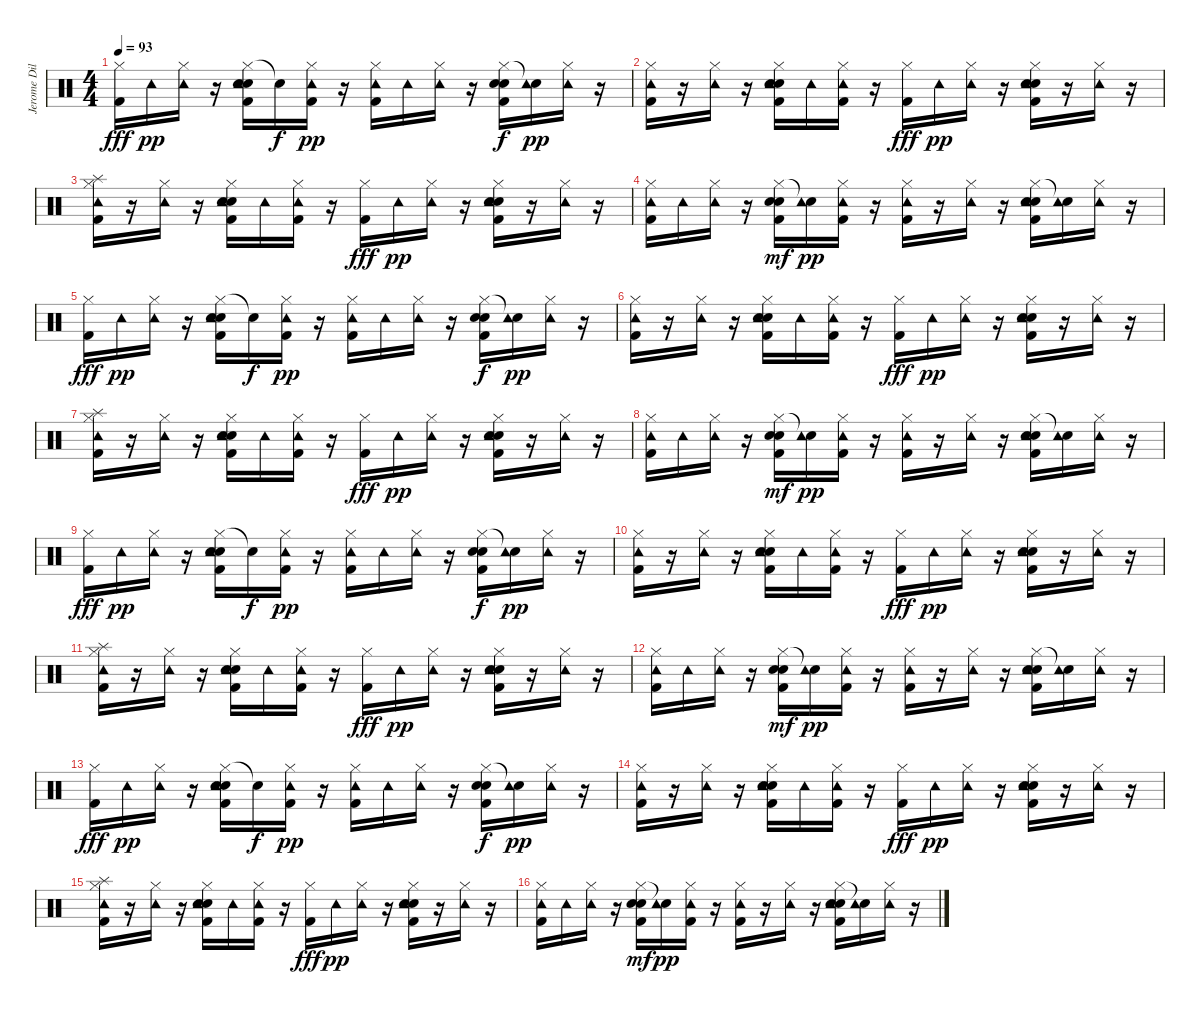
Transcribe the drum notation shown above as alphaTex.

\track ("Jerome Dillon" "Jerome Dil") {instrument percussion}
\staff {score}
\articulation defaults
\ts (4 4)
\tempo 93
\clef neutral
\ks c
("Hi-Hat (closed)" "Kick (hit) 2").16{dy fff} "Tambourine (hit)".16{dy pp} ("Hi-Hat (closed)" "Tambourine (hit)").16 r.16 ("Hi-Hat (closed)" "Hand Clap (hit)" "Snare (hit) 2" "Kick (hit) 2" "Tambourine (hit)").16 "Snare (hit)"{t}.16{dy f} ("Hi-Hat (closed)" "Kick (hit) 2" "Tambourine (hit)").16{dy pp} r.16 ("Hi-Hat (closed)" "Kick (hit) 2" "Tambourine (hit)").16 "Tambourine (hit)".16 ("Hi-Hat (closed)" "Tambourine (hit)").16 r.16 ("Hi-Hat (closed)" "Hand Clap (hit)" "Snare (hit) 2" "Kick (hit) 2").16{dy f} ("Snare (hit)"{t} "Tambourine (hit)").16{dy pp} ("Hi-Hat (closed)" "Tambourine (hit)").16 r.16 |
("Hi-Hat (closed)" "Kick (hit) 2" "Tambourine (hit)").16 r.16 ("Hi-Hat (closed)" "Tambourine (hit)").16 r.16 ("Hi-Hat (closed)" "Hand Clap (hit)" "Snare (hit) 2" "Kick (hit) 2" "Tambourine (hit)").16 "Tambourine (hit)".16 ("Hi-Hat (closed)" "Kick (hit) 2" "Tambourine (hit)").16 r.16 ("Hi-Hat (closed)" "Kick (hit) 2").16{dy fff} "Tambourine (hit)".16{dy pp} ("Hi-Hat (closed)" "Tambourine (hit)").16 r.16 ("Hi-Hat (closed)" "Hand Clap (hit)" "Snare (hit) 2" "Kick (hit) 2" "Tambourine (hit)").16 r.16 ("Hi-Hat (closed)" "Tambourine (hit)").16 r.16 |
("Hi-Hat (closed)" "Splash (hit)" "Kick (hit) 2" "Tambourine (hit)").16 r.16 ("Hi-Hat (closed)" "Tambourine (hit)").16 r.16 ("Hi-Hat (closed)" "Hand Clap (hit)" "Snare (hit) 2" "Kick (hit) 2" "Tambourine (hit)").16 "Tambourine (hit)".16 ("Hi-Hat (closed)" "Kick (hit) 2" "Tambourine (hit)").16 r.16 ("Hi-Hat (closed)" "Kick (hit) 2").16{dy fff} "Tambourine (hit)".16{dy pp} ("Hi-Hat (closed)" "Tambourine (hit)").16 r.16 ("Hi-Hat (closed)" "Hand Clap (hit)" "Snare (hit) 2" "Kick (hit) 2" "Tambourine (hit)").16 r.16 ("Hi-Hat (closed)" "Tambourine (hit)").16 r.16 |
("Hi-Hat (closed)" "Kick (hit) 2" "Tambourine (hit)").16 "Tambourine (hit)".16 ("Hi-Hat (closed)" "Tambourine (hit)").16 r.16 ("Hi-Hat (closed)" "Hand Clap (hit)" "Snare (hit) 2" "Kick (hit) 2").16{dy mf} ("Snare (hit)"{t} "Tambourine (hit)").16{dy pp} ("Hi-Hat (closed)" "Kick (hit) 2" "Tambourine (hit)").16 r.16 ("Hi-Hat (closed)" "Kick (hit) 2" "Tambourine (hit)").16 r.16 ("Hi-Hat (closed)" "Tambourine (hit)").16 r.16 ("Hi-Hat (closed)" "Hand Clap (hit)" "Snare (hit) 2" "Kick (hit) 2" "Tambourine (hit)").16 ("Snare (hit)"{t} "Tambourine (hit)").16 ("Hi-Hat (closed)" "Tambourine (hit)").16 r.16 |
("Hi-Hat (closed)" "Kick (hit) 2").16{dy fff} "Tambourine (hit)".16{dy pp} ("Hi-Hat (closed)" "Tambourine (hit)").16 r.16 ("Hi-Hat (closed)" "Hand Clap (hit)" "Snare (hit) 2" "Kick (hit) 2" "Tambourine (hit)").16 "Snare (hit)"{t}.16{dy f} ("Hi-Hat (closed)" "Kick (hit) 2" "Tambourine (hit)").16{dy pp} r.16 ("Hi-Hat (closed)" "Kick (hit) 2" "Tambourine (hit)").16 "Tambourine (hit)".16 ("Hi-Hat (closed)" "Tambourine (hit)").16 r.16 ("Hi-Hat (closed)" "Hand Clap (hit)" "Snare (hit) 2" "Kick (hit) 2").16{dy f} ("Snare (hit)"{t} "Tambourine (hit)").16{dy pp} ("Hi-Hat (closed)" "Tambourine (hit)").16 r.16 |
("Hi-Hat (closed)" "Kick (hit) 2" "Tambourine (hit)").16 r.16 ("Hi-Hat (closed)" "Tambourine (hit)").16 r.16 ("Hi-Hat (closed)" "Hand Clap (hit)" "Snare (hit) 2" "Kick (hit) 2" "Tambourine (hit)").16 "Tambourine (hit)".16 ("Hi-Hat (closed)" "Kick (hit) 2" "Tambourine (hit)").16 r.16 ("Hi-Hat (closed)" "Kick (hit) 2").16{dy fff} "Tambourine (hit)".16{dy pp} ("Hi-Hat (closed)" "Tambourine (hit)").16 r.16 ("Hi-Hat (closed)" "Hand Clap (hit)" "Snare (hit) 2" "Kick (hit) 2" "Tambourine (hit)").16 r.16 ("Hi-Hat (closed)" "Tambourine (hit)").16 r.16 |
("Hi-Hat (closed)" "Splash (hit)" "Kick (hit) 2" "Tambourine (hit)").16 r.16 ("Hi-Hat (closed)" "Tambourine (hit)").16 r.16 ("Hi-Hat (closed)" "Hand Clap (hit)" "Snare (hit) 2" "Kick (hit) 2" "Tambourine (hit)").16 "Tambourine (hit)".16 ("Hi-Hat (closed)" "Kick (hit) 2" "Tambourine (hit)").16 r.16 ("Hi-Hat (closed)" "Kick (hit) 2").16{dy fff} "Tambourine (hit)".16{dy pp} ("Hi-Hat (closed)" "Tambourine (hit)").16 r.16 ("Hi-Hat (closed)" "Hand Clap (hit)" "Snare (hit) 2" "Kick (hit) 2" "Tambourine (hit)").16 r.16 ("Hi-Hat (closed)" "Tambourine (hit)").16 r.16 |
("Hi-Hat (closed)" "Kick (hit) 2" "Tambourine (hit)").16 "Tambourine (hit)".16 ("Hi-Hat (closed)" "Tambourine (hit)").16 r.16 ("Hi-Hat (closed)" "Hand Clap (hit)" "Snare (hit) 2" "Kick (hit) 2").16{dy mf} ("Snare (hit)"{t} "Tambourine (hit)").16{dy pp} ("Hi-Hat (closed)" "Kick (hit) 2" "Tambourine (hit)").16 r.16 ("Hi-Hat (closed)" "Kick (hit) 2" "Tambourine (hit)").16 r.16 ("Hi-Hat (closed)" "Tambourine (hit)").16 r.16 ("Hi-Hat (closed)" "Hand Clap (hit)" "Snare (hit) 2" "Kick (hit) 2" "Tambourine (hit)").16 ("Snare (hit)"{t} "Tambourine (hit)").16 ("Hi-Hat (closed)" "Tambourine (hit)").16 r.16 |
("Hi-Hat (closed)" "Kick (hit) 2").16{dy fff} "Tambourine (hit)".16{dy pp} ("Hi-Hat (closed)" "Tambourine (hit)").16 r.16 ("Hi-Hat (closed)" "Hand Clap (hit)" "Snare (hit) 2" "Kick (hit) 2" "Tambourine (hit)").16 "Snare (hit)"{t}.16{dy f} ("Hi-Hat (closed)" "Kick (hit) 2" "Tambourine (hit)").16{dy pp} r.16 ("Hi-Hat (closed)" "Kick (hit) 2" "Tambourine (hit)").16 "Tambourine (hit)".16 ("Hi-Hat (closed)" "Tambourine (hit)").16 r.16 ("Hi-Hat (closed)" "Hand Clap (hit)" "Snare (hit) 2" "Kick (hit) 2").16{dy f} ("Snare (hit)"{t} "Tambourine (hit)").16{dy pp} ("Hi-Hat (closed)" "Tambourine (hit)").16 r.16 |
("Hi-Hat (closed)" "Kick (hit) 2" "Tambourine (hit)").16 r.16 ("Hi-Hat (closed)" "Tambourine (hit)").16 r.16 ("Hi-Hat (closed)" "Hand Clap (hit)" "Snare (hit) 2" "Kick (hit) 2" "Tambourine (hit)").16 "Tambourine (hit)".16 ("Hi-Hat (closed)" "Kick (hit) 2" "Tambourine (hit)").16 r.16 ("Hi-Hat (closed)" "Kick (hit) 2").16{dy fff} "Tambourine (hit)".16{dy pp} ("Hi-Hat (closed)" "Tambourine (hit)").16 r.16 ("Hi-Hat (closed)" "Hand Clap (hit)" "Snare (hit) 2" "Kick (hit) 2" "Tambourine (hit)").16 r.16 ("Hi-Hat (closed)" "Tambourine (hit)").16 r.16 |
("Hi-Hat (closed)" "Splash (hit)" "Kick (hit) 2" "Tambourine (hit)").16 r.16 ("Hi-Hat (closed)" "Tambourine (hit)").16 r.16 ("Hi-Hat (closed)" "Hand Clap (hit)" "Snare (hit) 2" "Kick (hit) 2" "Tambourine (hit)").16 "Tambourine (hit)".16 ("Hi-Hat (closed)" "Kick (hit) 2" "Tambourine (hit)").16 r.16 ("Hi-Hat (closed)" "Kick (hit) 2").16{dy fff} "Tambourine (hit)".16{dy pp} ("Hi-Hat (closed)" "Tambourine (hit)").16 r.16 ("Hi-Hat (closed)" "Hand Clap (hit)" "Snare (hit) 2" "Kick (hit) 2" "Tambourine (hit)").16 r.16 ("Hi-Hat (closed)" "Tambourine (hit)").16 r.16 |
("Hi-Hat (closed)" "Kick (hit) 2" "Tambourine (hit)").16 "Tambourine (hit)".16 ("Hi-Hat (closed)" "Tambourine (hit)").16 r.16 ("Hi-Hat (closed)" "Hand Clap (hit)" "Snare (hit) 2" "Kick (hit) 2").16{dy mf} ("Snare (hit)"{t} "Tambourine (hit)").16{dy pp} ("Hi-Hat (closed)" "Kick (hit) 2" "Tambourine (hit)").16 r.16 ("Hi-Hat (closed)" "Kick (hit) 2" "Tambourine (hit)").16 r.16 ("Hi-Hat (closed)" "Tambourine (hit)").16 r.16 ("Hi-Hat (closed)" "Hand Clap (hit)" "Snare (hit) 2" "Kick (hit) 2" "Tambourine (hit)").16 ("Snare (hit)"{t} "Tambourine (hit)").16 ("Hi-Hat (closed)" "Tambourine (hit)").16 r.16 |
("Hi-Hat (closed)" "Kick (hit) 2").16{dy fff} "Tambourine (hit)".16{dy pp} ("Hi-Hat (closed)" "Tambourine (hit)").16 r.16 ("Hi-Hat (closed)" "Hand Clap (hit)" "Snare (hit) 2" "Kick (hit) 2" "Tambourine (hit)").16 "Snare (hit)"{t}.16{dy f} ("Hi-Hat (closed)" "Kick (hit) 2" "Tambourine (hit)").16{dy pp} r.16 ("Hi-Hat (closed)" "Kick (hit) 2" "Tambourine (hit)").16 "Tambourine (hit)".16 ("Hi-Hat (closed)" "Tambourine (hit)").16 r.16 ("Hi-Hat (closed)" "Hand Clap (hit)" "Snare (hit) 2" "Kick (hit) 2").16{dy f} ("Snare (hit)"{t} "Tambourine (hit)").16{dy pp} ("Hi-Hat (closed)" "Tambourine (hit)").16 r.16 |
("Hi-Hat (closed)" "Kick (hit) 2" "Tambourine (hit)").16 r.16 ("Hi-Hat (closed)" "Tambourine (hit)").16 r.16 ("Hi-Hat (closed)" "Hand Clap (hit)" "Snare (hit) 2" "Kick (hit) 2" "Tambourine (hit)").16 "Tambourine (hit)".16 ("Hi-Hat (closed)" "Kick (hit) 2" "Tambourine (hit)").16 r.16 ("Hi-Hat (closed)" "Kick (hit) 2").16{dy fff} "Tambourine (hit)".16{dy pp} ("Hi-Hat (closed)" "Tambourine (hit)").16 r.16 ("Hi-Hat (closed)" "Hand Clap (hit)" "Snare (hit) 2" "Kick (hit) 2" "Tambourine (hit)").16 r.16 ("Hi-Hat (closed)" "Tambourine (hit)").16 r.16 |
("Hi-Hat (closed)" "Splash (hit)" "Kick (hit) 2" "Tambourine (hit)").16 r.16 ("Hi-Hat (closed)" "Tambourine (hit)").16 r.16 ("Hi-Hat (closed)" "Hand Clap (hit)" "Snare (hit) 2" "Kick (hit) 2" "Tambourine (hit)").16 "Tambourine (hit)".16 ("Hi-Hat (closed)" "Kick (hit) 2" "Tambourine (hit)").16 r.16 ("Hi-Hat (closed)" "Kick (hit) 2").16{dy fff} "Tambourine (hit)".16{dy pp} ("Hi-Hat (closed)" "Tambourine (hit)").16 r.16 ("Hi-Hat (closed)" "Hand Clap (hit)" "Snare (hit) 2" "Kick (hit) 2" "Tambourine (hit)").16 r.16 ("Hi-Hat (closed)" "Tambourine (hit)").16 r.16 |
("Hi-Hat (closed)" "Kick (hit) 2" "Tambourine (hit)").16 "Tambourine (hit)".16 ("Hi-Hat (closed)" "Tambourine (hit)").16 r.16 ("Hi-Hat (closed)" "Hand Clap (hit)" "Snare (hit) 2" "Kick (hit) 2").16{dy mf} ("Snare (hit)"{t} "Tambourine (hit)").16{dy pp} ("Hi-Hat (closed)" "Kick (hit) 2" "Tambourine (hit)").16 r.16 ("Hi-Hat (closed)" "Kick (hit) 2" "Tambourine (hit)").16 r.16 ("Hi-Hat (closed)" "Tambourine (hit)").16 r.16 ("Hi-Hat (closed)" "Hand Clap (hit)" "Snare (hit) 2" "Kick (hit) 2" "Tambourine (hit)").16 ("Snare (hit)"{t} "Tambourine (hit)").16 ("Hi-Hat (closed)" "Tambourine (hit)").16 r.16
